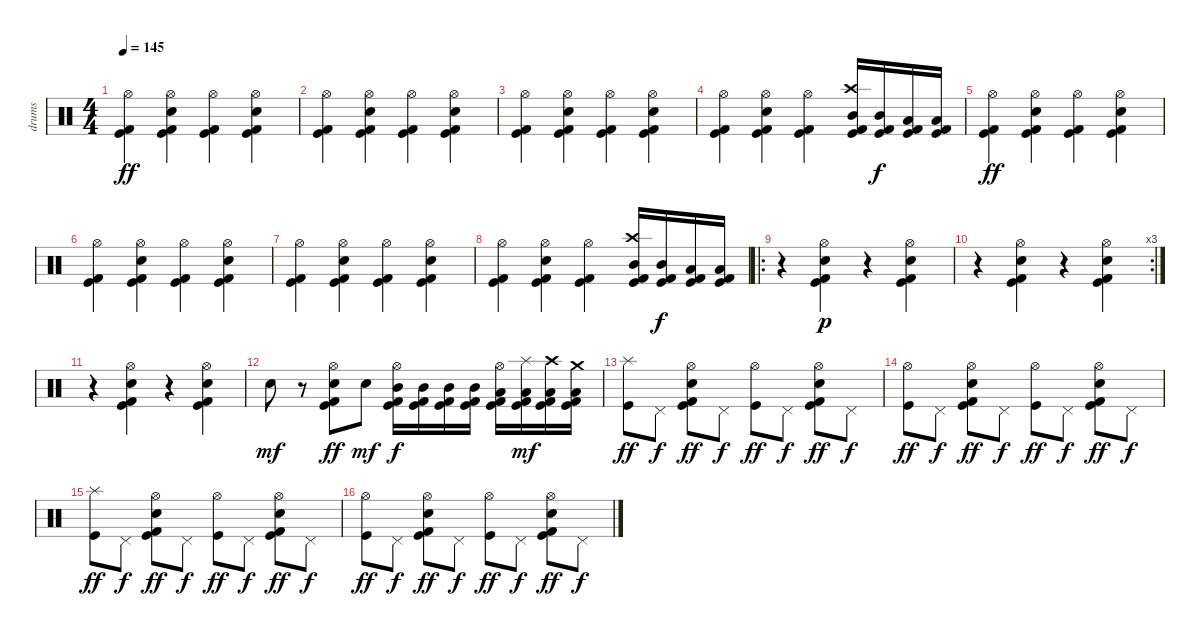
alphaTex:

\track ("drums" "drums") {instrument percussion}
\staff {score}
\articulation defaults
\ts (4 4)
\tempo 145
\clef neutral
\ks c
("Hi-Hat (open)" "Kick (hit) 2" "Kick (hit)").4{dy ff} ("Hi-Hat (open)" "Electric Snare (hit)" "Kick (hit) 2" "Kick (hit)").4 ("Hi-Hat (open)" "Kick (hit) 2" "Kick (hit)").4 ("Hi-Hat (open)" "Electric Snare (hit)" "Kick (hit) 2" "Kick (hit)").4 |
("Hi-Hat (open)" "Kick (hit) 2" "Kick (hit)").4 ("Hi-Hat (open)" "Electric Snare (hit)" "Kick (hit) 2" "Kick (hit)").4 ("Hi-Hat (open)" "Kick (hit) 2" "Kick (hit)").4 ("Hi-Hat (open)" "Electric Snare (hit)" "Kick (hit) 2" "Kick (hit)").4 |
("Hi-Hat (open)" "Kick (hit) 2" "Kick (hit)").4 ("Hi-Hat (open)" "Electric Snare (hit)" "Kick (hit) 2" "Kick (hit)").4 ("Hi-Hat (open)" "Kick (hit) 2" "Kick (hit)").4 ("Hi-Hat (open)" "Electric Snare (hit)" "Kick (hit) 2" "Kick (hit)").4 |
("Hi-Hat (open)" "Kick (hit) 2" "Kick (hit)").4 ("Hi-Hat (open)" "Electric Snare (hit)" "Kick (hit) 2" "Kick (hit)").4 ("Hi-Hat (open)" "Kick (hit) 2" "Kick (hit)").4 ("Crash high (hit)" "Mid Tom (hit)" "Kick (hit) 2" "Kick (hit)").16 ("Mid Tom (hit)" "Kick (hit) 2" "Kick (hit)").16{dy f} ("Low Floor Tom (hit)" "Kick (hit) 2" "Kick (hit)").16 ("Low Floor Tom (hit)" "Kick (hit) 2" "Kick (hit)").16 |
("Hi-Hat (open)" "Kick (hit) 2" "Kick (hit)").4{dy ff} ("Hi-Hat (open)" "Electric Snare (hit)" "Kick (hit) 2" "Kick (hit)").4 ("Hi-Hat (open)" "Kick (hit) 2" "Kick (hit)").4 ("Hi-Hat (open)" "Electric Snare (hit)" "Kick (hit) 2" "Kick (hit)").4 |
("Hi-Hat (open)" "Kick (hit) 2" "Kick (hit)").4 ("Hi-Hat (open)" "Electric Snare (hit)" "Kick (hit) 2" "Kick (hit)").4 ("Hi-Hat (open)" "Kick (hit) 2" "Kick (hit)").4 ("Hi-Hat (open)" "Electric Snare (hit)" "Kick (hit) 2" "Kick (hit)").4 |
("Hi-Hat (open)" "Kick (hit) 2" "Kick (hit)").4 ("Hi-Hat (open)" "Electric Snare (hit)" "Kick (hit) 2" "Kick (hit)").4 ("Hi-Hat (open)" "Kick (hit) 2" "Kick (hit)").4 ("Hi-Hat (open)" "Electric Snare (hit)" "Kick (hit) 2" "Kick (hit)").4 |
("Hi-Hat (open)" "Kick (hit) 2" "Kick (hit)").4 ("Hi-Hat (open)" "Electric Snare (hit)" "Kick (hit) 2" "Kick (hit)").4 ("Hi-Hat (open)" "Kick (hit) 2" "Kick (hit)").4 ("Crash high (hit)" "Mid Tom (hit)" "Kick (hit) 2" "Kick (hit)").16 ("Mid Tom (hit)" "Kick (hit) 2" "Kick (hit)").16{dy f} ("Low Floor Tom (hit)" "Kick (hit) 2" "Kick (hit)").16 ("Low Floor Tom (hit)" "Kick (hit) 2" "Kick (hit)").16 |
\ro
r.4 ("Hi-Hat (open)" "Electric Snare (hit)" "Kick (hit) 2" "Kick (hit)").4{dy p} r.4 ("Hi-Hat (open)" "Electric Snare (hit)" "Kick (hit)" "Kick (hit) 2").4 |
\rc 3
r.4 ("Hi-Hat (open)" "Electric Snare (hit)" "Kick (hit) 2" "Kick (hit)").4 r.4 ("Hi-Hat (open)" "Electric Snare (hit)" "Kick (hit) 2" "Kick (hit)").4 |
r.4 ("Hi-Hat (open)" "Electric Snare (hit)" "Kick (hit) 2" "Kick (hit)").4 r.4 ("Hi-Hat (open)" "Electric Snare (hit)" "Kick (hit)" "Kick (hit) 2").4 |
"Electric Snare (hit)".8{dy mf} r.8 ("Hi-Hat (open)" "Electric Snare (hit)" "Kick (hit) 2" "Kick (hit)").8{dy ff} "Electric Snare (hit)".8{dy mf} ("Hi-Hat (open)" "Mid Tom (hit)" "Kick (hit) 2" "Kick (hit)").16{dy f} ("Mid Tom (hit)" "Kick (hit) 2" "Kick (hit)").16 ("Mid Tom (hit)" "Kick (hit) 2" "Kick (hit)").16 ("Mid Tom (hit)" "Kick (hit) 2" "Kick (hit)").16 ("Hi-Hat (open)" "Low Floor Tom (hit)" "Kick (hit) 2" "Kick (hit)").16 ("Splash (hit)" "Low Floor Tom (hit)" "Kick (hit) 2" "Kick (hit)").16{dy mf} ("Crash high (hit)" "Low Floor Tom (hit)" "Kick (hit) 2" "Kick (hit)").16 ("Crash medium (hit)" "Low Floor Tom (hit)" "Kick (hit) 2" "Kick (hit)").16 |
("Splash (hit)" "Kick (hit)").8{dy ff} "Pedal Hi-Hat (hit)".8{dy f} ("Hi-Hat (open)" "Electric Snare (hit)" "Kick (hit) 2" "Kick (hit)").8{dy ff} "Pedal Hi-Hat (hit)".8{dy f} ("Hi-Hat (open)" "Kick (hit)").8{dy ff} "Pedal Hi-Hat (hit)".8{dy f} ("Hi-Hat (open)" "Electric Snare (hit)" "Kick (hit) 2" "Kick (hit)").8{dy ff} "Pedal Hi-Hat (hit)".8{dy f} |
("Hi-Hat (open)" "Kick (hit)").8{dy ff} "Pedal Hi-Hat (hit)".8{dy f} ("Hi-Hat (open)" "Electric Snare (hit)" "Kick (hit) 2" "Kick (hit)").8{dy ff} "Pedal Hi-Hat (hit)".8{dy f} ("Hi-Hat (open)" "Kick (hit)").8{dy ff} "Pedal Hi-Hat (hit)".8{dy f} ("Hi-Hat (open)" "Electric Snare (hit)" "Kick (hit) 2" "Kick (hit)").8{dy ff} "Pedal Hi-Hat (hit)".8{dy f} |
("Splash (hit)" "Kick (hit)").8{dy ff} "Pedal Hi-Hat (hit)".8{dy f} ("Hi-Hat (open)" "Electric Snare (hit)" "Kick (hit) 2" "Kick (hit)").8{dy ff} "Pedal Hi-Hat (hit)".8{dy f} ("Hi-Hat (open)" "Kick (hit)").8{dy ff} "Pedal Hi-Hat (hit)".8{dy f} ("Hi-Hat (open)" "Electric Snare (hit)" "Kick (hit) 2" "Kick (hit)").8{dy ff} "Pedal Hi-Hat (hit)".8{dy f} |
("Hi-Hat (open)" "Kick (hit)").8{dy ff} "Pedal Hi-Hat (hit)".8{dy f} ("Hi-Hat (open)" "Electric Snare (hit)" "Kick (hit) 2" "Kick (hit)").8{dy ff} "Pedal Hi-Hat (hit)".8{dy f} ("Hi-Hat (open)" "Kick (hit)").8{dy ff} "Pedal Hi-Hat (hit)".8{dy f} ("Hi-Hat (open)" "Electric Snare (hit)" "Kick (hit) 2" "Kick (hit)").8{dy ff} "Pedal Hi-Hat (hit)".8{dy f}
